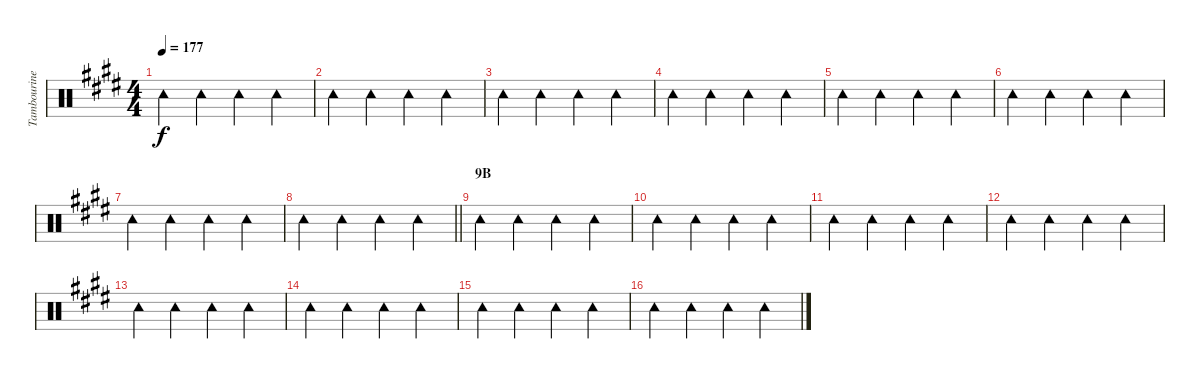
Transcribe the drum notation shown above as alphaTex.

\track ("Tambourine" "Tambourine") {instrument percussion}
\staff {score}
\articulation defaults
\ts (4 4)
\tempo 177
\clef neutral
\ks e "Tambourine (hit)".4{dy f} "Tambourine (hit)".4 "Tambourine (hit)".4 "Tambourine (hit)".4
|
"Tambourine (hit)".4 "Tambourine (hit)".4 "Tambourine (hit)".4 "Tambourine (hit)".4 |
"Tambourine (hit)".4 "Tambourine (hit)".4 "Tambourine (hit)".4 "Tambourine (hit)".4 |
"Tambourine (hit)".4 "Tambourine (hit)".4 "Tambourine (hit)".4 "Tambourine (hit)".4 |
"Tambourine (hit)".4 "Tambourine (hit)".4 "Tambourine (hit)".4 "Tambourine (hit)".4 |
"Tambourine (hit)".4 "Tambourine (hit)".4 "Tambourine (hit)".4 "Tambourine (hit)".4 |
"Tambourine (hit)".4 "Tambourine (hit)".4 "Tambourine (hit)".4 "Tambourine (hit)".4 |
\barLineRight lightlight "Tambourine (hit)".4 "Tambourine (hit)".4 "Tambourine (hit)".4 "Tambourine (hit)".4
|
\section ("" "9B")
"Tambourine (hit)".4 "Tambourine (hit)".4 "Tambourine (hit)".4 "Tambourine (hit)".4 |
"Tambourine (hit)".4 "Tambourine (hit)".4 "Tambourine (hit)".4 "Tambourine (hit)".4 |
"Tambourine (hit)".4 "Tambourine (hit)".4 "Tambourine (hit)".4 "Tambourine (hit)".4 |
"Tambourine (hit)".4 "Tambourine (hit)".4 "Tambourine (hit)".4 "Tambourine (hit)".4 |
"Tambourine (hit)".4 "Tambourine (hit)".4 "Tambourine (hit)".4 "Tambourine (hit)".4 |
"Tambourine (hit)".4 "Tambourine (hit)".4 "Tambourine (hit)".4 "Tambourine (hit)".4 |
"Tambourine (hit)".4 "Tambourine (hit)".4 "Tambourine (hit)".4 "Tambourine (hit)".4 |
"Tambourine (hit)".4 "Tambourine (hit)".4 "Tambourine (hit)".4 "Tambourine (hit)".4
